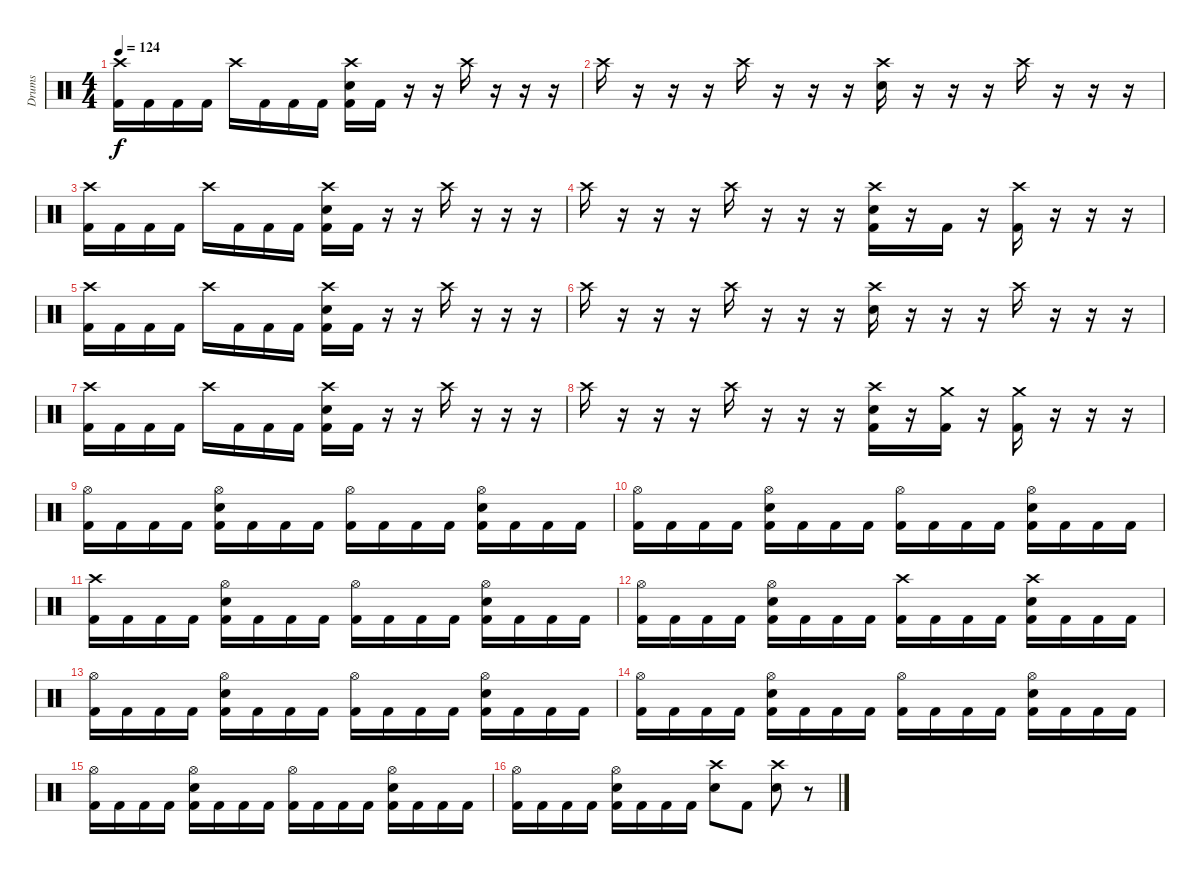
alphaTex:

\track ("Drums" "Drums") {instrument percussion}
\staff {score}
\articulation defaults
\ts (4 4)
\tempo 124
\clef neutral
\ks c
("Crash high (hit)" "Kick (hit) 2").16{dy f} "Kick (hit) 2".16 "Kick (hit) 2".16 "Kick (hit) 2".16 "Crash high (hit)".16 "Kick (hit) 2".16 "Kick (hit) 2".16 "Kick (hit) 2".16 ("Crash high (hit)" "Electric Snare (hit)" "Kick (hit) 2").16 "Kick (hit) 2".16 r.16 r.16 "Crash high (hit)".16 r.16 r.16 r.16 |
"Crash high (hit)".16 r.16 r.16 r.16 "Crash high (hit)".16 r.16 r.16 r.16 ("Crash high (hit)" "Electric Snare (hit)").16 r.16 r.16 r.16 "Crash high (hit)".16 r.16 r.16 r.16 |
("Crash high (hit)" "Kick (hit) 2").16 "Kick (hit) 2".16 "Kick (hit) 2".16 "Kick (hit) 2".16 "Crash high (hit)".16 "Kick (hit) 2".16 "Kick (hit) 2".16 "Kick (hit) 2".16 ("Crash high (hit)" "Electric Snare (hit)" "Kick (hit) 2").16 "Kick (hit) 2".16 r.16 r.16 "Crash high (hit)".16 r.16 r.16 r.16 |
"Crash high (hit)".16 r.16 r.16 r.16 "Crash high (hit)".16 r.16 r.16 r.16 ("Crash high (hit)" "Electric Snare (hit)" "Kick (hit) 2").16 r.16 "Kick (hit) 2".16 r.16 ("Crash high (hit)" "Kick (hit) 2").16 r.16 r.16 r.16 |
("Crash high (hit)" "Kick (hit) 2").16 "Kick (hit) 2".16 "Kick (hit) 2".16 "Kick (hit) 2".16 "Crash high (hit)".16 "Kick (hit) 2".16 "Kick (hit) 2".16 "Kick (hit) 2".16 ("Crash high (hit)" "Electric Snare (hit)" "Kick (hit) 2").16 "Kick (hit) 2".16 r.16 r.16 "Crash high (hit)".16 r.16 r.16 r.16 |
"Crash high (hit)".16 r.16 r.16 r.16 "Crash high (hit)".16 r.16 r.16 r.16 ("Crash high (hit)" "Electric Snare (hit)").16 r.16 r.16 r.16 "Crash high (hit)".16 r.16 r.16 r.16 |
("Crash high (hit)" "Kick (hit) 2").16 "Kick (hit) 2".16 "Kick (hit) 2".16 "Kick (hit) 2".16 "Crash high (hit)".16 "Kick (hit) 2".16 "Kick (hit) 2".16 "Kick (hit) 2".16 ("Crash high (hit)" "Electric Snare (hit)" "Kick (hit) 2").16 "Kick (hit) 2".16 r.16 r.16 "Crash high (hit)".16 r.16 r.16 r.16 |
"Crash high (hit)".16 r.16 r.16 r.16 "Crash high (hit)".16 r.16 r.16 r.16 ("Crash high (hit)" "Electric Snare (hit)" "Kick (hit) 2").16 r.16 ("Crash medium (hit)" "Kick (hit) 2").16 r.16 ("Crash medium (hit)" "Kick (hit) 2").16 r.16 r.16 r.16 |
("Hi-Hat (open)" "Kick (hit) 2").16 "Kick (hit) 2".16 "Kick (hit) 2".16 "Kick (hit) 2".16 ("Hi-Hat (open)" "Electric Snare (hit)" "Kick (hit) 2").16 "Kick (hit) 2".16 "Kick (hit) 2".16 "Kick (hit) 2".16 ("Hi-Hat (open)" "Kick (hit) 2").16 "Kick (hit) 2".16 "Kick (hit) 2".16 "Kick (hit) 2".16 ("Hi-Hat (open)" "Electric Snare (hit)" "Kick (hit) 2").16 "Kick (hit) 2".16 "Kick (hit) 2".16 "Kick (hit) 2".16 |
("Hi-Hat (open)" "Kick (hit) 2").16 "Kick (hit) 2".16 "Kick (hit) 2".16 "Kick (hit) 2".16 ("Hi-Hat (open)" "Electric Snare (hit)" "Kick (hit) 2").16 "Kick (hit) 2".16 "Kick (hit) 2".16 "Kick (hit) 2".16 ("Hi-Hat (open)" "Kick (hit) 2").16 "Kick (hit) 2".16 "Kick (hit) 2".16 "Kick (hit) 2".16 ("Hi-Hat (open)" "Electric Snare (hit)" "Kick (hit) 2").16 "Kick (hit) 2".16 "Kick (hit) 2".16 "Kick (hit) 2".16 |
("Crash high (hit)" "Kick (hit) 2").16 "Kick (hit) 2".16 "Kick (hit) 2".16 "Kick (hit) 2".16 ("Hi-Hat (open)" "Electric Snare (hit)" "Kick (hit) 2").16 "Kick (hit) 2".16 "Kick (hit) 2".16 "Kick (hit) 2".16 ("Hi-Hat (open)" "Kick (hit) 2").16 "Kick (hit) 2".16 "Kick (hit) 2".16 "Kick (hit) 2".16 ("Hi-Hat (open)" "Electric Snare (hit)" "Kick (hit) 2").16 "Kick (hit) 2".16 "Kick (hit) 2".16 "Kick (hit) 2".16 |
("Hi-Hat (open)" "Kick (hit) 2").16 "Kick (hit) 2".16 "Kick (hit) 2".16 "Kick (hit) 2".16 ("Hi-Hat (open)" "Electric Snare (hit)" "Kick (hit) 2").16 "Kick (hit) 2".16 "Kick (hit) 2".16 "Kick (hit) 2".16 ("Crash high (hit)" "Kick (hit) 2").16 "Kick (hit) 2".16 "Kick (hit) 2".16 "Kick (hit) 2".16 ("Crash high (hit)" "Electric Snare (hit)" "Kick (hit) 2").16 "Kick (hit) 2".16 "Kick (hit) 2".16 "Kick (hit) 2".16 |
("Hi-Hat (open)" "Kick (hit) 2").16 "Kick (hit) 2".16 "Kick (hit) 2".16 "Kick (hit) 2".16 ("Hi-Hat (open)" "Electric Snare (hit)" "Kick (hit) 2").16 "Kick (hit) 2".16 "Kick (hit) 2".16 "Kick (hit) 2".16 ("Hi-Hat (open)" "Kick (hit) 2").16 "Kick (hit) 2".16 "Kick (hit) 2".16 "Kick (hit) 2".16 ("Hi-Hat (open)" "Electric Snare (hit)" "Kick (hit) 2").16 "Kick (hit) 2".16 "Kick (hit) 2".16 "Kick (hit) 2".16 |
("Hi-Hat (open)" "Kick (hit) 2").16 "Kick (hit) 2".16 "Kick (hit) 2".16 "Kick (hit) 2".16 ("Hi-Hat (open)" "Electric Snare (hit)" "Kick (hit) 2").16 "Kick (hit) 2".16 "Kick (hit) 2".16 "Kick (hit) 2".16 ("Hi-Hat (open)" "Kick (hit) 2").16 "Kick (hit) 2".16 "Kick (hit) 2".16 "Kick (hit) 2".16 ("Hi-Hat (open)" "Electric Snare (hit)" "Kick (hit) 2").16 "Kick (hit) 2".16 "Kick (hit) 2".16 "Kick (hit) 2".16 |
("Hi-Hat (open)" "Kick (hit) 2").16 "Kick (hit) 2".16 "Kick (hit) 2".16 "Kick (hit) 2".16 ("Hi-Hat (open)" "Electric Snare (hit)" "Kick (hit) 2").16 "Kick (hit) 2".16 "Kick (hit) 2".16 "Kick (hit) 2".16 ("Hi-Hat (open)" "Kick (hit) 2").16 "Kick (hit) 2".16 "Kick (hit) 2".16 "Kick (hit) 2".16 ("Hi-Hat (open)" "Electric Snare (hit)" "Kick (hit) 2").16 "Kick (hit) 2".16 "Kick (hit) 2".16 "Kick (hit) 2".16 |
("Hi-Hat (open)" "Kick (hit) 2").16 "Kick (hit) 2".16 "Kick (hit) 2".16 "Kick (hit) 2".16 ("Hi-Hat (open)" "Electric Snare (hit)" "Kick (hit) 2").16 "Kick (hit) 2".16 "Kick (hit) 2".16 "Kick (hit) 2".16 ("Crash high (hit)" "Electric Snare (hit)").8 "Kick (hit) 2".8 ("Crash high (hit)" "Electric Snare (hit)").8 r.8
